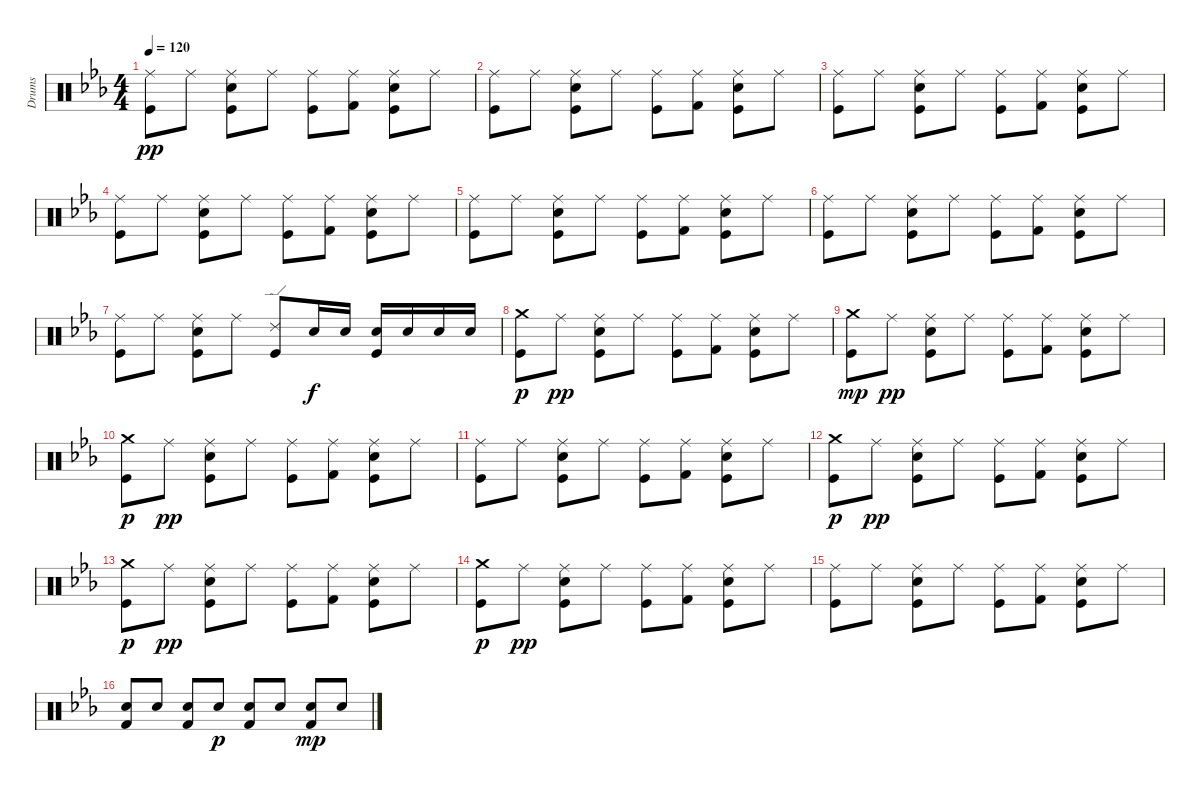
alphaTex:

\track ("Drums" "Drums") {instrument percussion}
\staff {score}
\articulation defaults
\ts (4 4)
\tempo 120
\clef neutral
\ks cminor
("Ride (middle)" "Kick (hit)").8{dy pp} "Ride (middle)".8 ("Ride (middle)" "Electric Snare (hit)" "Kick (hit)").8 "Ride (middle)".8 ("Ride (middle)" "Kick (hit)").8 ("Kick (hit) 2" "Ride (middle)").8 ("Ride (middle)" "Electric Snare (hit)" "Kick (hit)").8 "Ride (middle)".8 |
("Ride (middle)" "Kick (hit)").8 "Ride (middle)".8 ("Ride (middle)" "Electric Snare (hit)" "Kick (hit)").8 "Ride (middle)".8 ("Ride (middle)" "Kick (hit)").8 ("Kick (hit) 2" "Ride (middle)").8 ("Ride (middle)" "Electric Snare (hit)" "Kick (hit)").8 "Ride (middle)".8 |
("Ride (middle)" "Kick (hit)").8 "Ride (middle)".8 ("Ride (middle)" "Electric Snare (hit)" "Kick (hit)").8 "Ride (middle)".8 ("Ride (middle)" "Kick (hit)").8 ("Kick (hit) 2" "Ride (middle)").8 ("Ride (middle)" "Electric Snare (hit)" "Kick (hit)").8 "Ride (middle)".8 |
("Ride (middle)" "Kick (hit)").8 "Ride (middle)".8 ("Ride (middle)" "Electric Snare (hit)" "Kick (hit)").8 "Ride (middle)".8 ("Ride (middle)" "Kick (hit)").8 ("Kick (hit) 2" "Ride (middle)").8 ("Ride (middle)" "Electric Snare (hit)" "Kick (hit)").8 "Ride (middle)".8 |
("Ride (middle)" "Kick (hit)").8 "Ride (middle)".8 ("Ride (middle)" "Electric Snare (hit)" "Kick (hit)").8 "Ride (middle)".8 ("Ride (middle)" "Kick (hit)").8 ("Kick (hit) 2" "Ride (middle)").8 ("Ride (middle)" "Electric Snare (hit)" "Kick (hit)").8 "Ride (middle)".8 |
("Ride (middle)" "Kick (hit)").8 "Ride (middle)".8 ("Ride (middle)" "Electric Snare (hit)" "Kick (hit)").8 "Ride (middle)".8 ("Ride (middle)" "Kick (hit)").8 ("Kick (hit) 2" "Ride (middle)").8 ("Ride (middle)" "Electric Snare (hit)" "Kick (hit)").8 "Ride (middle)".8 |
("Ride (middle)" "Kick (hit)").8 "Ride (middle)".8 ("Ride (middle)" "Electric Snare (hit)" "Kick (hit)").8 "Ride (middle)".8 ("Ride (edge) 2" "Kick (hit)").8 "Electric Snare (hit)".16{dy f} "Electric Snare (hit)".16 ("Electric Snare (hit)" "Kick (hit)").16 "Electric Snare (hit)".16 "Electric Snare (hit)".16 "Electric Snare (hit)".16 |
("Crash medium (hit)" "Kick (hit)").8{dy p} "Ride (middle)".8{dy pp} ("Ride (middle)" "Electric Snare (hit)" "Kick (hit)").8 "Ride (middle)".8 ("Ride (middle)" "Kick (hit)").8 ("Kick (hit) 2" "Ride (middle)").8 ("Ride (middle)" "Electric Snare (hit)" "Kick (hit)").8 "Ride (middle)".8 |
("Crash medium (hit)" "Kick (hit)").8{dy mp} "Ride (middle)".8{dy pp} ("Ride (middle)" "Electric Snare (hit)" "Kick (hit)").8 "Ride (middle)".8 ("Ride (middle)" "Kick (hit)").8 ("Kick (hit) 2" "Ride (middle)").8 ("Ride (middle)" "Electric Snare (hit)" "Kick (hit)").8 "Ride (middle)".8 |
("Crash medium (hit)" "Kick (hit)").8{dy p} "Ride (middle)".8{dy pp} ("Ride (middle)" "Electric Snare (hit)" "Kick (hit)").8 "Ride (middle)".8 ("Ride (middle)" "Kick (hit)").8 ("Kick (hit) 2" "Ride (middle)").8 ("Ride (middle)" "Electric Snare (hit)" "Kick (hit)").8 "Ride (middle)".8 |
("Ride (middle)" "Kick (hit)").8 "Ride (middle)".8 ("Ride (middle)" "Electric Snare (hit)" "Kick (hit)").8 "Ride (middle)".8 ("Ride (middle)" "Kick (hit)").8 ("Kick (hit) 2" "Ride (middle)").8 ("Ride (middle)" "Electric Snare (hit)" "Kick (hit)").8 "Ride (middle)".8 |
("Crash medium (hit)" "Kick (hit)").8{dy p} "Ride (middle)".8{dy pp} ("Ride (middle)" "Electric Snare (hit)" "Kick (hit)").8 "Ride (middle)".8 ("Ride (middle)" "Kick (hit)").8 ("Kick (hit) 2" "Ride (middle)").8 ("Ride (middle)" "Electric Snare (hit)" "Kick (hit)").8 "Ride (middle)".8 |
("Crash medium (hit)" "Kick (hit)").8{dy p} "Ride (middle)".8{dy pp} ("Ride (middle)" "Electric Snare (hit)" "Kick (hit)").8 "Ride (middle)".8 ("Ride (middle)" "Kick (hit)").8 ("Kick (hit) 2" "Ride (middle)").8 ("Ride (middle)" "Electric Snare (hit)" "Kick (hit)").8 "Ride (middle)".8 |
("Crash medium (hit)" "Kick (hit)").8{dy p} "Ride (middle)".8{dy pp} ("Ride (middle)" "Electric Snare (hit)" "Kick (hit)").8 "Ride (middle)".8 ("Ride (middle)" "Kick (hit)").8 ("Kick (hit) 2" "Ride (middle)").8 ("Ride (middle)" "Electric Snare (hit)" "Kick (hit)").8 "Ride (middle)".8 |
("Ride (middle)" "Kick (hit)").8 "Ride (middle)".8 ("Ride (middle)" "Electric Snare (hit)" "Kick (hit)").8 "Ride (middle)".8 ("Ride (middle)" "Kick (hit)").8 ("Kick (hit) 2" "Ride (middle)").8 ("Ride (middle)" "Electric Snare (hit)" "Kick (hit)").8 "Ride (middle)".8 |
("Electric Snare (hit)" "Kick (hit) 2").8 "Electric Snare (hit)".8 ("Electric Snare (hit)" "Kick (hit) 2").8 "Electric Snare (hit)".8{dy p} ("Electric Snare (hit)" "Kick (hit) 2").8 "Electric Snare (hit)".8 ("Electric Snare (hit)" "Kick (hit) 2").8{dy mp} "Electric Snare (hit)".8
